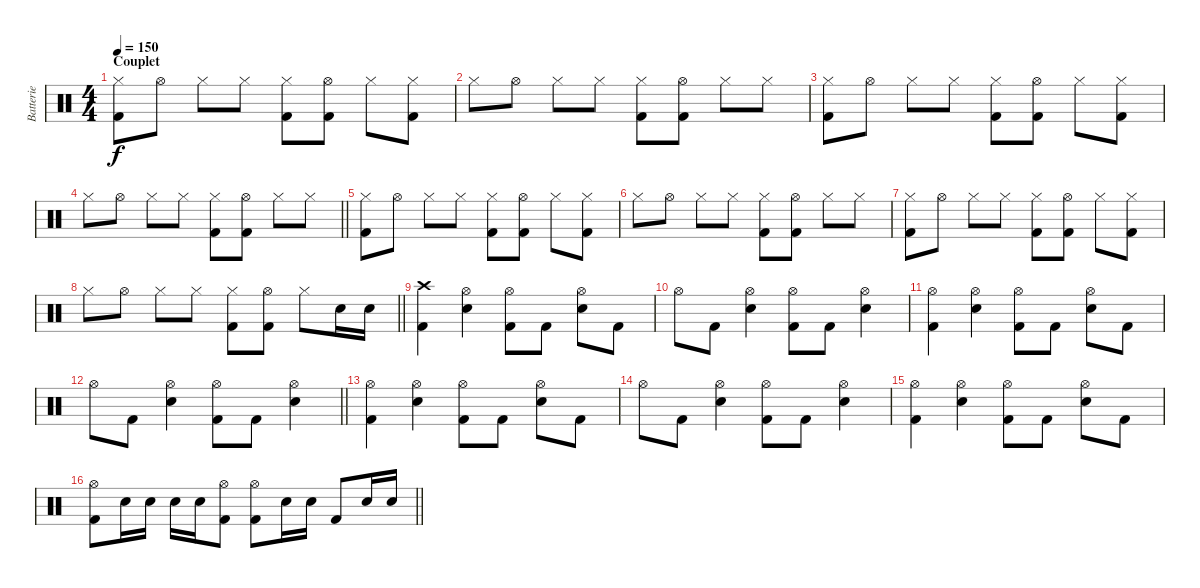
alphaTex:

\track ("Batterie" "Batterie") {instrument percussion}
\staff {score}
\articulation defaults
\ts (4 4)
\section ("" "Couplet")
\tempo 150
\clef neutral
\ks c
("Hi-Hat (closed)" "Kick (hit) 2").8{dy f} "Hi-Hat (open)".8 "Hi-Hat (closed)".8 "Hi-Hat (closed)".8 ("Hi-Hat (closed)" "Kick (hit) 2").8 ("Hi-Hat (open)" "Kick (hit) 2").8 "Hi-Hat (closed)".8 ("Hi-Hat (closed)" "Kick (hit) 2").8 |
"Hi-Hat (closed)".8 "Hi-Hat (open)".8 "Hi-Hat (closed)".8 "Hi-Hat (closed)".8 ("Hi-Hat (closed)" "Kick (hit) 2").8 ("Hi-Hat (open)" "Kick (hit) 2").8 "Hi-Hat (closed)".8 "Hi-Hat (closed)".8 |
("Hi-Hat (closed)" "Kick (hit) 2").8 "Hi-Hat (open)".8 "Hi-Hat (closed)".8 "Hi-Hat (closed)".8 ("Hi-Hat (closed)" "Kick (hit) 2").8 ("Hi-Hat (open)" "Kick (hit) 2").8 "Hi-Hat (closed)".8 ("Hi-Hat (closed)" "Kick (hit) 2").8 |
\barLineRight lightlight "Hi-Hat (closed)".8 "Hi-Hat (open)".8 "Hi-Hat (closed)".8 "Hi-Hat (closed)".8
("Hi-Hat (closed)" "Kick (hit) 2").8 ("Hi-Hat (open)" "Kick (hit) 2").8 "Hi-Hat (closed)".8 "Hi-Hat (closed)".8 |
("Hi-Hat (closed)" "Kick (hit) 2").8 "Hi-Hat (open)".8 "Hi-Hat (closed)".8 "Hi-Hat (closed)".8 ("Hi-Hat (closed)" "Kick (hit) 2").8 ("Hi-Hat (open)" "Kick (hit) 2").8 "Hi-Hat (closed)".8 ("Hi-Hat (closed)" "Kick (hit) 2").8 |
"Hi-Hat (closed)".8 "Hi-Hat (open)".8 "Hi-Hat (closed)".8 "Hi-Hat (closed)".8 ("Hi-Hat (closed)" "Kick (hit) 2").8 ("Hi-Hat (open)" "Kick (hit) 2").8 "Hi-Hat (closed)".8 "Hi-Hat (closed)".8 |
("Hi-Hat (closed)" "Kick (hit) 2").8 "Hi-Hat (open)".8 "Hi-Hat (closed)".8 "Hi-Hat (closed)".8 ("Hi-Hat (closed)" "Kick (hit) 2").8 ("Hi-Hat (open)" "Kick (hit) 2").8 "Hi-Hat (closed)".8 ("Hi-Hat (closed)" "Kick (hit) 2").8 |
\barLineRight lightlight "Hi-Hat (closed)".8 "Hi-Hat (open)".8 "Hi-Hat (closed)".8 "Hi-Hat (closed)".8
("Hi-Hat (closed)" "Kick (hit) 2").8 ("Hi-Hat (open)" "Kick (hit) 2").8 "Hi-Hat (closed)".8 "Electric Snare (hit)".16 "Electric Snare (hit)".16 |
("Crash high (hit)" "Kick (hit) 2").4 ("Hi-Hat (open)" "Electric Snare (hit)").4 ("Hi-Hat (open)" "Kick (hit) 2").8 "Kick (hit) 2".8 ("Hi-Hat (open)" "Electric Snare (hit)").8 "Kick (hit) 2".8 |
"Hi-Hat (open)".8 "Kick (hit) 2".8 ("Hi-Hat (open)" "Electric Snare (hit)").4 ("Hi-Hat (open)" "Kick (hit) 2").8 "Kick (hit) 2".8 ("Hi-Hat (open)" "Electric Snare (hit)").4 |
("Hi-Hat (open)" "Kick (hit) 2").4 ("Hi-Hat (open)" "Electric Snare (hit)").4 ("Hi-Hat (open)" "Kick (hit) 2").8 "Kick (hit) 2".8 ("Hi-Hat (open)" "Electric Snare (hit)").8 "Kick (hit) 2".8 |
\barLineRight lightlight "Hi-Hat (open)".8 "Kick (hit) 2".8
("Hi-Hat (open)" "Electric Snare (hit)").4 ("Hi-Hat (open)" "Kick (hit) 2").8 "Kick (hit) 2".8 ("Hi-Hat (open)" "Electric Snare (hit)").4 |
("Hi-Hat (open)" "Kick (hit) 2").4 ("Hi-Hat (open)" "Electric Snare (hit)").4 ("Hi-Hat (open)" "Kick (hit) 2").8 "Kick (hit) 2".8 ("Hi-Hat (open)" "Electric Snare (hit)").8 "Kick (hit) 2".8 |
"Hi-Hat (open)".8 "Kick (hit) 2".8 ("Hi-Hat (open)" "Electric Snare (hit)").4 ("Hi-Hat (open)" "Kick (hit) 2").8 "Kick (hit) 2".8 ("Hi-Hat (open)" "Electric Snare (hit)").4 |
("Hi-Hat (open)" "Kick (hit) 2").4 ("Hi-Hat (open)" "Electric Snare (hit)").4 ("Hi-Hat (open)" "Kick (hit) 2").8 "Kick (hit) 2".8 ("Hi-Hat (open)" "Electric Snare (hit)").8 "Kick (hit) 2".8 |
\barLineRight lightlight
("Hi-Hat (open)" "Kick (hit) 2").8 "Electric Snare (hit)".16 "Electric Snare (hit)".16 "Electric Snare (hit)".16 "Electric Snare (hit)".16 ("Hi-Hat (open)" "Kick (hit) 2").8 ("Hi-Hat (open)" "Kick (hit) 2").8 "Electric Snare (hit)".16 "Electric Snare (hit)".16 "Kick (hit) 2".8 "Electric Snare (hit)".16 "Electric Snare (hit)".16
